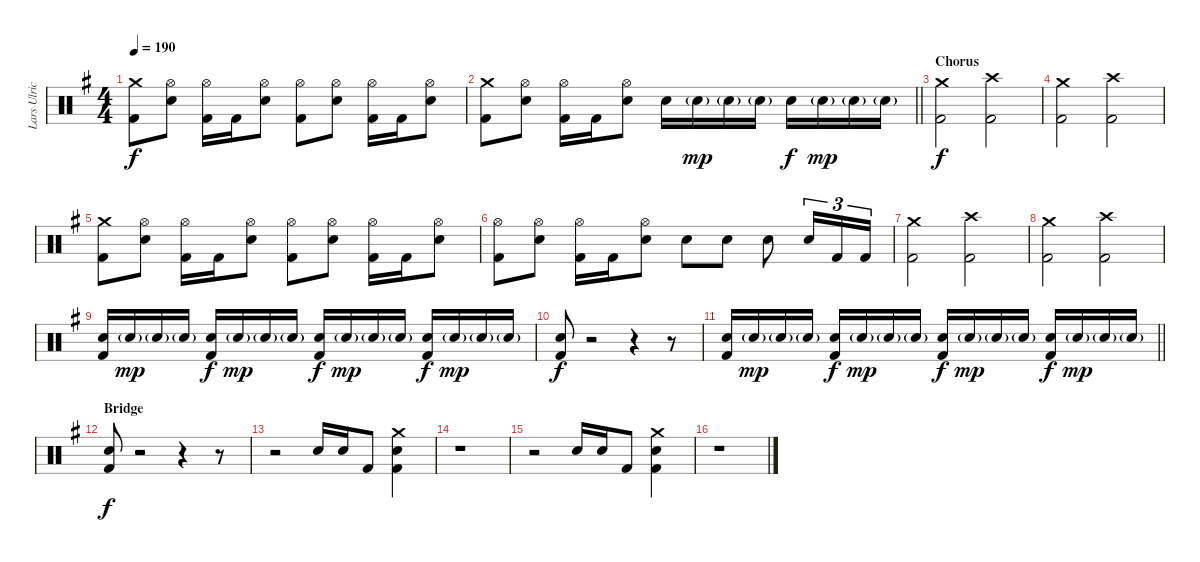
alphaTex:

\track ("Lars Ulrich - Drums" "Lars Ulric") {instrument percussion}
\staff {score}
\articulation defaults
\ts (4 4)
\tempo 190
\clef neutral
\ks eminor
("Crash medium (hit)" "Kick (hit) 2").8{dy f} ("Hi-Hat (open)" "Snare (hit) 2").8 ("Hi-Hat (open)" "Kick (hit) 2").16 "Kick (hit) 2".16 ("Hi-Hat (open)" "Snare (hit) 2").8 ("Hi-Hat (open)" "Kick (hit) 2").8 ("Hi-Hat (open)" "Snare (hit) 2").8 ("Hi-Hat (open)" "Kick (hit) 2").16 "Kick (hit) 2".16 ("Hi-Hat (open)" "Snare (hit) 2").8 |
\barLineRight lightlight
("Crash medium (hit)" "Kick (hit) 2").8 ("Hi-Hat (open)" "Snare (hit) 2").8 ("Hi-Hat (open)" "Kick (hit) 2").16 "Kick (hit) 2".16 ("Hi-Hat (open)" "Snare (hit) 2").8 "Snare (hit) 2".16 "Snare (hit) 2"{g}.16{dy mp} "Snare (hit) 2"{g}.16 "Snare (hit) 2"{g}.16 "Snare (hit) 2".16{dy f} "Snare (hit) 2"{g}.16{dy mp} "Snare (hit) 2"{g}.16 "Snare (hit) 2"{g}.16 |
\section ("" "Chorus")
("Crash medium (hit)" "Kick (hit) 2").2{dy f} ("Crash high (hit)" "Kick (hit) 2").2 |
("Crash medium (hit)" "Kick (hit) 2").2 ("Crash high (hit)" "Kick (hit) 2").2 |
("Crash medium (hit)" "Kick (hit) 2").8 ("Hi-Hat (open)" "Snare (hit) 2").8 ("Hi-Hat (open)" "Kick (hit) 2").16 "Kick (hit) 2".16 ("Hi-Hat (open)" "Snare (hit) 2").8 ("Hi-Hat (open)" "Kick (hit) 2").8 ("Hi-Hat (open)" "Snare (hit) 2").8 ("Hi-Hat (open)" "Kick (hit) 2").16 "Kick (hit) 2".16 ("Hi-Hat (open)" "Snare (hit) 2").8 |
("Hi-Hat (open)" "Kick (hit) 2").8 ("Hi-Hat (open)" "Snare (hit) 2").8 ("Hi-Hat (open)" "Kick (hit) 2").16 "Kick (hit) 2".16 ("Hi-Hat (open)" "Snare (hit) 2").8 "Snare (hit) 2".8 "Snare (hit) 2".8 "Snare (hit) 2".8 "Snare (hit) 2".16{tu (3 2)} "Kick (hit) 2".16{tu (3 2)} "Kick (hit) 2".16{tu (3 2)} |
("Crash medium (hit)" "Kick (hit) 2").2 ("Crash high (hit)" "Kick (hit) 2").2 |
("Crash medium (hit)" "Kick (hit) 2").2 ("Crash high (hit)" "Kick (hit) 2").2 |
("Snare (hit) 2" "Kick (hit) 2").16 "Snare (hit) 2"{g}.16{dy mp} "Snare (hit) 2"{g}.16 "Snare (hit) 2"{g}.16 ("Snare (hit) 2" "Kick (hit) 2").16{dy f} "Snare (hit) 2"{g}.16{dy mp} "Snare (hit) 2"{g}.16 "Snare (hit) 2"{g}.16 ("Snare (hit) 2" "Kick (hit) 2").16{dy f} "Snare (hit) 2"{g}.16{dy mp} "Snare (hit) 2"{g}.16 "Snare (hit) 2"{g}.16 ("Snare (hit) 2" "Kick (hit) 2").16{dy f} "Snare (hit) 2"{g}.16{dy mp} "Snare (hit) 2"{g}.16 "Snare (hit) 2"{g}.16 |
("Snare (hit) 2" "Kick (hit) 2").8{dy f} r.2 r.4 r.8 |
\barLineRight lightlight
("Snare (hit) 2" "Kick (hit) 2").16 "Snare (hit) 2"{g}.16{dy mp} "Snare (hit) 2"{g}.16 "Snare (hit) 2"{g}.16 ("Snare (hit) 2" "Kick (hit) 2").16{dy f} "Snare (hit) 2"{g}.16{dy mp} "Snare (hit) 2"{g}.16 "Snare (hit) 2"{g}.16 ("Snare (hit) 2" "Kick (hit) 2").16{dy f} "Snare (hit) 2"{g}.16{dy mp} "Snare (hit) 2"{g}.16 "Snare (hit) 2"{g}.16 ("Snare (hit) 2" "Kick (hit) 2").16{dy f} "Snare (hit) 2"{g}.16{dy mp} "Snare (hit) 2"{g}.16 "Snare (hit) 2"{g}.16 |
\section ("" "Bridge")
("Snare (hit) 2" "Kick (hit) 2").8{dy f} r.2 r.4 r.8 |
r.2 "Snare (hit) 2".16 "Snare (hit) 2".16 "Kick (hit) 2".8 ("Crash medium (hit)" "Snare (hit) 2" "Kick (hit) 2").4 |
r.1 |
r.2 "Snare (hit) 2".16 "Snare (hit) 2".16 "Kick (hit) 2".8 ("Crash medium (hit)" "Snare (hit) 2" "Kick (hit) 2").4 |
r.1
